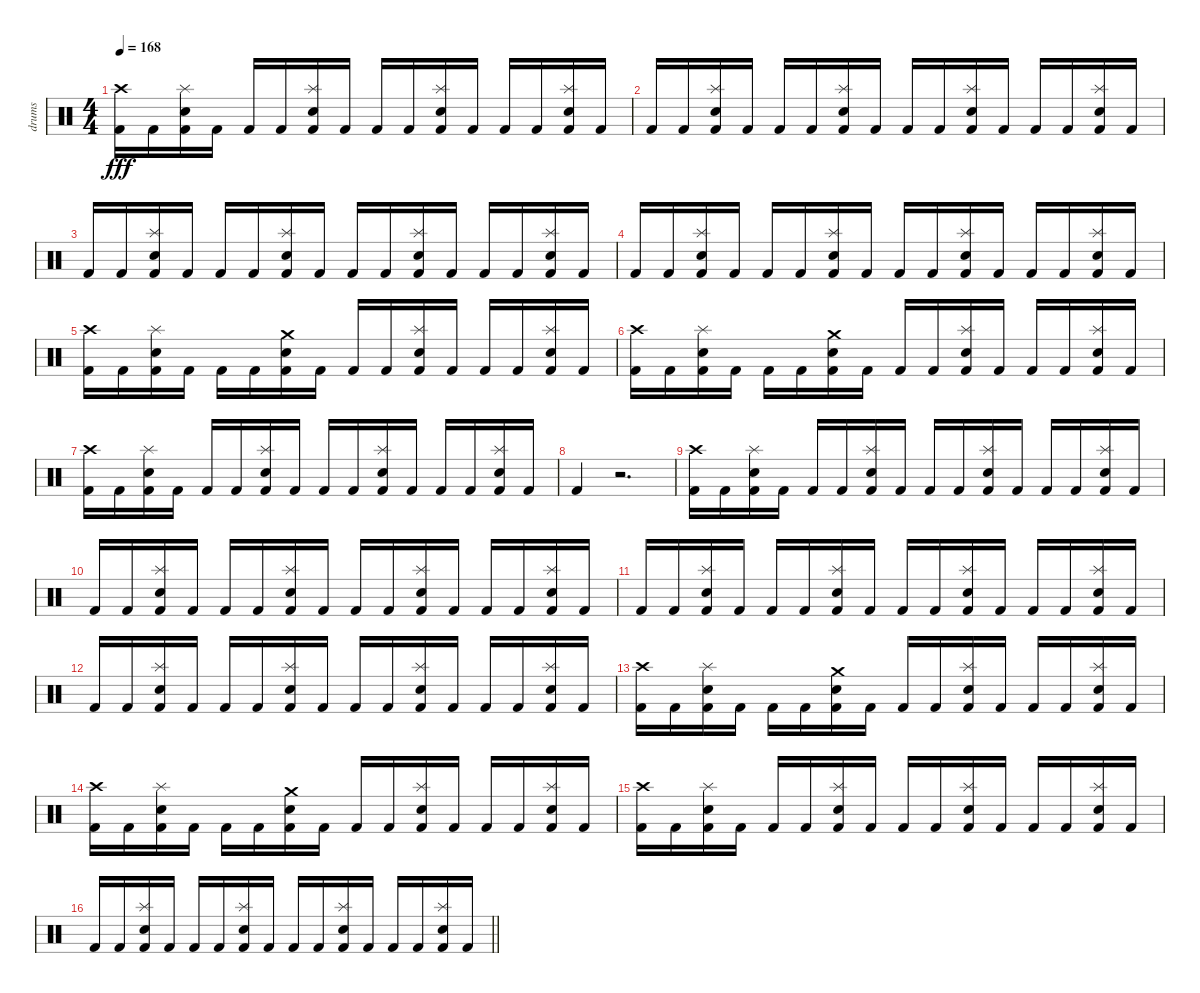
\track ("drums" "drums") {instrument percussion}
\staff {score}
\articulation defaults
\ts (4 4)
\tempo 168
\clef neutral
\ks c
("Crash high (hit)" "Kick (hit) 2").16{dy fff} "Kick (hit) 2".16 ("Splash (hit)" "Snare (hit) 2" "Kick (hit) 2").16 "Kick (hit) 2".16 "Kick (hit) 2".16 "Kick (hit) 2".16 ("Splash (hit)" "Snare (hit) 2" "Kick (hit) 2").16 "Kick (hit) 2".16 "Kick (hit) 2".16 "Kick (hit) 2".16 ("Splash (hit)" "Snare (hit) 2" "Kick (hit) 2").16 "Kick (hit) 2".16 "Kick (hit) 2".16 "Kick (hit) 2".16 ("Splash (hit)" "Snare (hit) 2" "Kick (hit) 2").16 "Kick (hit) 2".16 |
"Kick (hit) 2".16 "Kick (hit) 2".16 ("Splash (hit)" "Snare (hit) 2" "Kick (hit) 2").16 "Kick (hit) 2".16 "Kick (hit) 2".16 "Kick (hit) 2".16 ("Splash (hit)" "Snare (hit) 2" "Kick (hit) 2").16 "Kick (hit) 2".16 "Kick (hit) 2".16 "Kick (hit) 2".16 ("Splash (hit)" "Snare (hit) 2" "Kick (hit) 2").16 "Kick (hit) 2".16 "Kick (hit) 2".16 "Kick (hit) 2".16 ("Splash (hit)" "Snare (hit) 2" "Kick (hit) 2").16 "Kick (hit) 2".16 |
"Kick (hit) 2".16 "Kick (hit) 2".16 ("Splash (hit)" "Snare (hit) 2" "Kick (hit) 2").16 "Kick (hit) 2".16 "Kick (hit) 2".16 "Kick (hit) 2".16 ("Splash (hit)" "Snare (hit) 2" "Kick (hit) 2").16 "Kick (hit) 2".16 "Kick (hit) 2".16 "Kick (hit) 2".16 ("Splash (hit)" "Snare (hit) 2" "Kick (hit) 2").16 "Kick (hit) 2".16 "Kick (hit) 2".16 "Kick (hit) 2".16 ("Splash (hit)" "Snare (hit) 2" "Kick (hit) 2").16 "Kick (hit) 2".16 |
"Kick (hit) 2".16 "Kick (hit) 2".16 ("Splash (hit)" "Snare (hit) 2" "Kick (hit) 2").16 "Kick (hit) 2".16 "Kick (hit) 2".16 "Kick (hit) 2".16 ("Splash (hit)" "Snare (hit) 2" "Kick (hit) 2").16 "Kick (hit) 2".16 "Kick (hit) 2".16 "Kick (hit) 2".16 ("Splash (hit)" "Snare (hit) 2" "Kick (hit) 2").16 "Kick (hit) 2".16 "Kick (hit) 2".16 "Kick (hit) 2".16 ("Splash (hit)" "Snare (hit) 2" "Kick (hit) 2").16 "Kick (hit) 2".16 |
("Crash high (hit)" "Kick (hit) 2").16 "Kick (hit) 2".16 ("Splash (hit)" "Snare (hit) 2" "Kick (hit) 2").16 "Kick (hit) 2".16 "Kick (hit) 2".16 "Kick (hit) 2".16 ("Crash medium (hit)" "Snare (hit) 2" "Kick (hit) 2").16 "Kick (hit) 2".16 "Kick (hit) 2".16 "Kick (hit) 2".16 ("Splash (hit)" "Snare (hit) 2" "Kick (hit) 2").16 "Kick (hit) 2".16 "Kick (hit) 2".16 "Kick (hit) 2".16 ("Splash (hit)" "Snare (hit) 2" "Kick (hit) 2").16 "Kick (hit) 2".16 |
("Crash high (hit)" "Kick (hit) 2").16 "Kick (hit) 2".16 ("Splash (hit)" "Snare (hit) 2" "Kick (hit) 2").16 "Kick (hit) 2".16 "Kick (hit) 2".16 "Kick (hit) 2".16 ("Crash medium (hit)" "Snare (hit) 2" "Kick (hit) 2").16 "Kick (hit) 2".16 "Kick (hit) 2".16 "Kick (hit) 2".16 ("Splash (hit)" "Snare (hit) 2" "Kick (hit) 2").16 "Kick (hit) 2".16 "Kick (hit) 2".16 "Kick (hit) 2".16 ("Splash (hit)" "Snare (hit) 2" "Kick (hit) 2").16 "Kick (hit) 2".16 |
("Crash high (hit)" "Kick (hit) 2").16 "Kick (hit) 2".16 ("Splash (hit)" "Snare (hit) 2" "Kick (hit) 2").16 "Kick (hit) 2".16 "Kick (hit) 2".16 "Kick (hit) 2".16 ("Splash (hit)" "Snare (hit) 2" "Kick (hit) 2").16 "Kick (hit) 2".16 "Kick (hit) 2".16 "Kick (hit) 2".16 ("Splash (hit)" "Snare (hit) 2" "Kick (hit) 2").16 "Kick (hit) 2".16 "Kick (hit) 2".16 "Kick (hit) 2".16 ("Splash (hit)" "Snare (hit) 2" "Kick (hit) 2").16 "Kick (hit) 2".16 |
"Kick (hit) 2".4 r.2{d} |
("Crash high (hit)" "Kick (hit) 2").16 "Kick (hit) 2".16 ("Splash (hit)" "Snare (hit) 2" "Kick (hit) 2").16 "Kick (hit) 2".16 "Kick (hit) 2".16 "Kick (hit) 2".16 ("Splash (hit)" "Snare (hit) 2" "Kick (hit) 2").16 "Kick (hit) 2".16 "Kick (hit) 2".16 "Kick (hit) 2".16 ("Splash (hit)" "Snare (hit) 2" "Kick (hit) 2").16 "Kick (hit) 2".16 "Kick (hit) 2".16 "Kick (hit) 2".16 ("Splash (hit)" "Snare (hit) 2" "Kick (hit) 2").16 "Kick (hit) 2".16 |
"Kick (hit) 2".16 "Kick (hit) 2".16 ("Splash (hit)" "Snare (hit) 2" "Kick (hit) 2").16 "Kick (hit) 2".16 "Kick (hit) 2".16 "Kick (hit) 2".16 ("Splash (hit)" "Snare (hit) 2" "Kick (hit) 2").16 "Kick (hit) 2".16 "Kick (hit) 2".16 "Kick (hit) 2".16 ("Splash (hit)" "Snare (hit) 2" "Kick (hit) 2").16 "Kick (hit) 2".16 "Kick (hit) 2".16 "Kick (hit) 2".16 ("Splash (hit)" "Snare (hit) 2" "Kick (hit) 2").16 "Kick (hit) 2".16 |
"Kick (hit) 2".16 "Kick (hit) 2".16 ("Splash (hit)" "Snare (hit) 2" "Kick (hit) 2").16 "Kick (hit) 2".16 "Kick (hit) 2".16 "Kick (hit) 2".16 ("Splash (hit)" "Snare (hit) 2" "Kick (hit) 2").16 "Kick (hit) 2".16 "Kick (hit) 2".16 "Kick (hit) 2".16 ("Splash (hit)" "Snare (hit) 2" "Kick (hit) 2").16 "Kick (hit) 2".16 "Kick (hit) 2".16 "Kick (hit) 2".16 ("Splash (hit)" "Snare (hit) 2" "Kick (hit) 2").16 "Kick (hit) 2".16 |
"Kick (hit) 2".16 "Kick (hit) 2".16 ("Splash (hit)" "Snare (hit) 2" "Kick (hit) 2").16 "Kick (hit) 2".16 "Kick (hit) 2".16 "Kick (hit) 2".16 ("Splash (hit)" "Snare (hit) 2" "Kick (hit) 2").16 "Kick (hit) 2".16 "Kick (hit) 2".16 "Kick (hit) 2".16 ("Splash (hit)" "Snare (hit) 2" "Kick (hit) 2").16 "Kick (hit) 2".16 "Kick (hit) 2".16 "Kick (hit) 2".16 ("Splash (hit)" "Snare (hit) 2" "Kick (hit) 2").16 "Kick (hit) 2".16 |
("Crash high (hit)" "Kick (hit) 2").16 "Kick (hit) 2".16 ("Splash (hit)" "Snare (hit) 2" "Kick (hit) 2").16 "Kick (hit) 2".16 "Kick (hit) 2".16 "Kick (hit) 2".16 ("Crash medium (hit)" "Snare (hit) 2" "Kick (hit) 2").16 "Kick (hit) 2".16 "Kick (hit) 2".16 "Kick (hit) 2".16 ("Splash (hit)" "Snare (hit) 2" "Kick (hit) 2").16 "Kick (hit) 2".16 "Kick (hit) 2".16 "Kick (hit) 2".16 ("Splash (hit)" "Snare (hit) 2" "Kick (hit) 2").16 "Kick (hit) 2".16 |
("Crash high (hit)" "Kick (hit) 2").16 "Kick (hit) 2".16 ("Splash (hit)" "Snare (hit) 2" "Kick (hit) 2").16 "Kick (hit) 2".16 "Kick (hit) 2".16 "Kick (hit) 2".16 ("Crash medium (hit)" "Snare (hit) 2" "Kick (hit) 2").16 "Kick (hit) 2".16 "Kick (hit) 2".16 "Kick (hit) 2".16 ("Splash (hit)" "Snare (hit) 2" "Kick (hit) 2").16 "Kick (hit) 2".16 "Kick (hit) 2".16 "Kick (hit) 2".16 ("Splash (hit)" "Snare (hit) 2" "Kick (hit) 2").16 "Kick (hit) 2".16 |
("Crash high (hit)" "Kick (hit) 2").16 "Kick (hit) 2".16 ("Splash (hit)" "Snare (hit) 2" "Kick (hit) 2").16 "Kick (hit) 2".16 "Kick (hit) 2".16 "Kick (hit) 2".16 ("Splash (hit)" "Snare (hit) 2" "Kick (hit) 2").16 "Kick (hit) 2".16 "Kick (hit) 2".16 "Kick (hit) 2".16 ("Splash (hit)" "Snare (hit) 2" "Kick (hit) 2").16 "Kick (hit) 2".16 "Kick (hit) 2".16 "Kick (hit) 2".16 ("Splash (hit)" "Snare (hit) 2" "Kick (hit) 2").16 "Kick (hit) 2".16 |
\barLineRight lightlight "Kick (hit) 2".16 "Kick (hit) 2".16
("Splash (hit)" "Snare (hit) 2" "Kick (hit) 2").16 "Kick (hit) 2".16 "Kick (hit) 2".16 "Kick (hit) 2".16 ("Splash (hit)" "Snare (hit) 2" "Kick (hit) 2").16 "Kick (hit) 2".16 "Kick (hit) 2".16 "Kick (hit) 2".16 ("Splash (hit)" "Snare (hit) 2" "Kick (hit) 2").16 "Kick (hit) 2".16 "Kick (hit) 2".16 "Kick (hit) 2".16 ("Splash (hit)" "Snare (hit) 2" "Kick (hit) 2").16 "Kick (hit) 2".16
